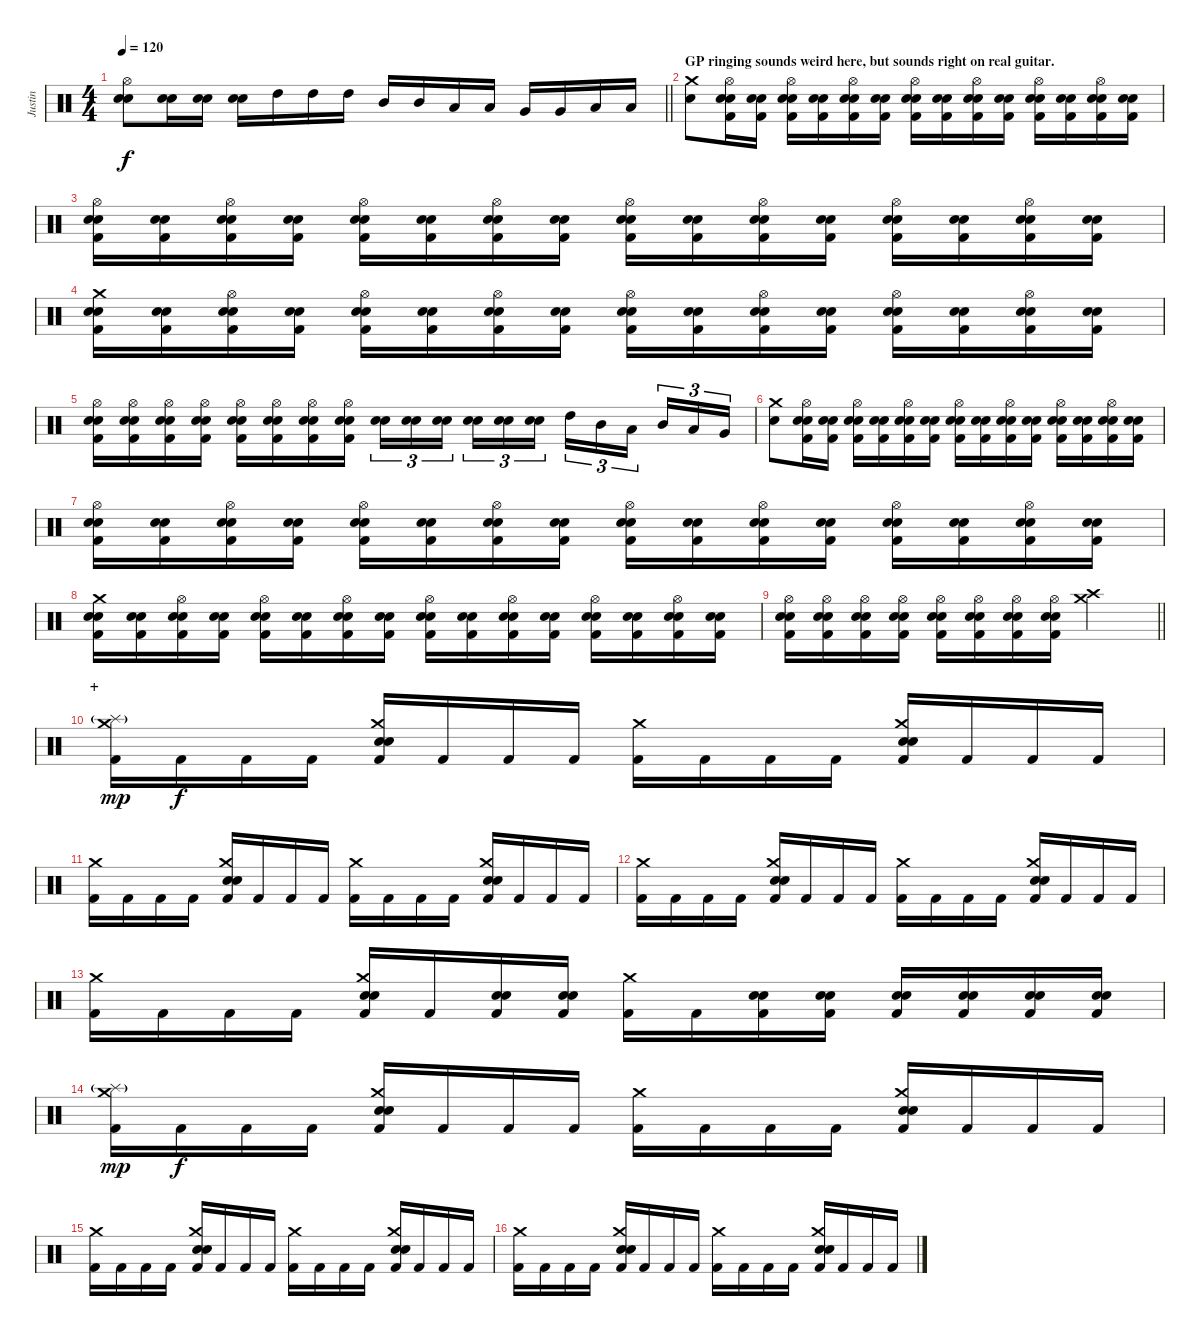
\track ("Justin" "Justin") {instrument percussion}
\staff {score}
\articulation defaults
\ts (4 4)
\tempo 120
\clef neutral
\barLineRight lightlight
\ks c
("Hi-Hat (open)" "Electric Snare (hit)" "Snare (hit) 2").8{dy f} ("Electric Snare (hit)" "Snare (hit) 2").16 ("Electric Snare (hit)" "Snare (hit) 2").16 ("Electric Snare (hit)" "Snare (hit) 2").16 "High Tom (hit)".16 "High Tom (hit)".16 "High Tom (hit)".16 "Mid Tom (hit)".16 "Mid Tom (hit)".16 "Low Tom (hit)".16 "Low Tom (hit)".16 "Very Low Tom (hit)".16 "Very Low Tom (hit)".16 "Low Floor Tom (hit)".16 "Low Floor Tom (hit)".16 |
\section ("" "GP ringing sounds weird here, but sounds right on real guitar.")
("Crash medium (hit)" "Electric Snare (hit)").8 ("Hi-Hat (open)" "Electric Snare (hit)" "Snare (hit) 2" "Kick (hit) 2").16 ("Electric Snare (hit)" "Snare (hit) 2" "Kick (hit) 2").16 ("Hi-Hat (open)" "Electric Snare (hit)" "Snare (hit) 2" "Kick (hit) 2").16 ("Electric Snare (hit)" "Snare (hit) 2" "Kick (hit) 2").16 ("Hi-Hat (open)" "Electric Snare (hit)" "Snare (hit) 2" "Kick (hit) 2").16 ("Electric Snare (hit)" "Snare (hit) 2" "Kick (hit) 2").16 ("Hi-Hat (open)" "Electric Snare (hit)" "Snare (hit) 2" "Kick (hit) 2").16 ("Electric Snare (hit)" "Snare (hit) 2" "Kick (hit) 2").16 ("Hi-Hat (open)" "Electric Snare (hit)" "Snare (hit) 2" "Kick (hit) 2").16 ("Electric Snare (hit)" "Snare (hit) 2" "Kick (hit) 2").16 ("Hi-Hat (open)" "Electric Snare (hit)" "Snare (hit) 2" "Kick (hit) 2").16 ("Electric Snare (hit)" "Snare (hit) 2" "Kick (hit) 2").16 ("Hi-Hat (open)" "Electric Snare (hit)" "Snare (hit) 2" "Kick (hit) 2").16 ("Electric Snare (hit)" "Snare (hit) 2" "Kick (hit) 2").16 |
("Hi-Hat (open)" "Electric Snare (hit)" "Snare (hit) 2" "Kick (hit) 2").16 ("Electric Snare (hit)" "Snare (hit) 2" "Kick (hit) 2").16 ("Hi-Hat (open)" "Electric Snare (hit)" "Snare (hit) 2" "Kick (hit) 2").16 ("Electric Snare (hit)" "Snare (hit) 2" "Kick (hit) 2").16 ("Hi-Hat (open)" "Electric Snare (hit)" "Snare (hit) 2" "Kick (hit) 2").16 ("Electric Snare (hit)" "Snare (hit) 2" "Kick (hit) 2").16 ("Hi-Hat (open)" "Electric Snare (hit)" "Snare (hit) 2" "Kick (hit) 2").16 ("Electric Snare (hit)" "Snare (hit) 2" "Kick (hit) 2").16 ("Hi-Hat (open)" "Electric Snare (hit)" "Snare (hit) 2" "Kick (hit) 2").16 ("Electric Snare (hit)" "Snare (hit) 2" "Kick (hit) 2").16 ("Hi-Hat (open)" "Electric Snare (hit)" "Snare (hit) 2" "Kick (hit) 2").16 ("Electric Snare (hit)" "Snare (hit) 2" "Kick (hit) 2").16 ("Hi-Hat (open)" "Electric Snare (hit)" "Snare (hit) 2" "Kick (hit) 2").16 ("Electric Snare (hit)" "Snare (hit) 2" "Kick (hit) 2").16 ("Hi-Hat (open)" "Electric Snare (hit)" "Snare (hit) 2" "Kick (hit) 2").16 ("Electric Snare (hit)" "Snare (hit) 2" "Kick (hit) 2").16 |
("Crash medium (hit)" "Electric Snare (hit)" "Snare (hit) 2" "Kick (hit) 2").16 ("Electric Snare (hit)" "Snare (hit) 2" "Kick (hit) 2").16 ("Hi-Hat (open)" "Electric Snare (hit)" "Snare (hit) 2" "Kick (hit) 2").16 ("Electric Snare (hit)" "Snare (hit) 2" "Kick (hit) 2").16 ("Hi-Hat (open)" "Electric Snare (hit)" "Snare (hit) 2" "Kick (hit) 2").16 ("Electric Snare (hit)" "Snare (hit) 2" "Kick (hit) 2").16 ("Hi-Hat (open)" "Electric Snare (hit)" "Snare (hit) 2" "Kick (hit) 2").16 ("Electric Snare (hit)" "Snare (hit) 2" "Kick (hit) 2").16 ("Hi-Hat (open)" "Electric Snare (hit)" "Snare (hit) 2" "Kick (hit) 2").16 ("Electric Snare (hit)" "Snare (hit) 2" "Kick (hit) 2").16 ("Hi-Hat (open)" "Electric Snare (hit)" "Snare (hit) 2" "Kick (hit) 2").16 ("Electric Snare (hit)" "Snare (hit) 2" "Kick (hit) 2").16 ("Hi-Hat (open)" "Electric Snare (hit)" "Snare (hit) 2" "Kick (hit) 2").16 ("Electric Snare (hit)" "Snare (hit) 2" "Kick (hit) 2").16 ("Hi-Hat (open)" "Electric Snare (hit)" "Snare (hit) 2" "Kick (hit) 2").16 ("Electric Snare (hit)" "Snare (hit) 2" "Kick (hit) 2").16 |
("Hi-Hat (open)" "Electric Snare (hit)" "Snare (hit) 2" "Kick (hit) 2").16 ("Hi-Hat (open)" "Electric Snare (hit)" "Snare (hit) 2" "Kick (hit) 2").16 ("Hi-Hat (open)" "Electric Snare (hit)" "Snare (hit) 2" "Kick (hit) 2").16 ("Hi-Hat (open)" "Electric Snare (hit)" "Snare (hit) 2" "Kick (hit) 2").16 ("Hi-Hat (open)" "Electric Snare (hit)" "Snare (hit) 2" "Kick (hit) 2").16 ("Hi-Hat (open)" "Electric Snare (hit)" "Snare (hit) 2" "Kick (hit) 2").16 ("Hi-Hat (open)" "Electric Snare (hit)" "Snare (hit) 2" "Kick (hit) 2").16 ("Hi-Hat (open)" "Electric Snare (hit)" "Snare (hit) 2" "Kick (hit) 2").16 ("Electric Snare (hit)" "Snare (hit) 2").16{tu (3 2)} ("Electric Snare (hit)" "Snare (hit) 2").16{tu (3 2)} ("Electric Snare (hit)" "Snare (hit) 2").16{tu (3 2) beam splitsecondary} ("Electric Snare (hit)" "Snare (hit) 2").16{tu (3 2)} ("Electric Snare (hit)" "Snare (hit) 2").16{tu (3 2)} ("Electric Snare (hit)" "Snare (hit) 2").16{tu (3 2)} "High Tom (hit)".16{tu (3 2)} "Mid Tom (hit)".16{tu (3 2)} "Low Tom (hit)".16{tu (3 2) beam splitsecondary} "Mid Tom (hit)".16{tu (3 2)} "Low Tom (hit)".16{tu (3 2)} "Very Low Tom (hit)".16{tu (3 2)} |
("Crash medium (hit)" "Electric Snare (hit)").8 ("Hi-Hat (open)" "Electric Snare (hit)" "Snare (hit) 2" "Kick (hit) 2").16 ("Electric Snare (hit)" "Snare (hit) 2" "Kick (hit) 2").16 ("Hi-Hat (open)" "Electric Snare (hit)" "Snare (hit) 2" "Kick (hit) 2").16 ("Electric Snare (hit)" "Snare (hit) 2" "Kick (hit) 2").16 ("Hi-Hat (open)" "Electric Snare (hit)" "Snare (hit) 2" "Kick (hit) 2").16 ("Electric Snare (hit)" "Snare (hit) 2" "Kick (hit) 2").16 ("Hi-Hat (open)" "Electric Snare (hit)" "Snare (hit) 2" "Kick (hit) 2").16 ("Electric Snare (hit)" "Snare (hit) 2" "Kick (hit) 2").16 ("Hi-Hat (open)" "Electric Snare (hit)" "Snare (hit) 2" "Kick (hit) 2").16 ("Electric Snare (hit)" "Snare (hit) 2" "Kick (hit) 2").16 ("Hi-Hat (open)" "Electric Snare (hit)" "Snare (hit) 2" "Kick (hit) 2").16 ("Electric Snare (hit)" "Snare (hit) 2" "Kick (hit) 2").16 ("Hi-Hat (open)" "Electric Snare (hit)" "Snare (hit) 2" "Kick (hit) 2").16 ("Electric Snare (hit)" "Snare (hit) 2" "Kick (hit) 2").16 |
("Hi-Hat (open)" "Electric Snare (hit)" "Snare (hit) 2" "Kick (hit) 2").16 ("Electric Snare (hit)" "Snare (hit) 2" "Kick (hit) 2").16 ("Hi-Hat (open)" "Electric Snare (hit)" "Snare (hit) 2" "Kick (hit) 2").16 ("Electric Snare (hit)" "Snare (hit) 2" "Kick (hit) 2").16 ("Hi-Hat (open)" "Electric Snare (hit)" "Snare (hit) 2" "Kick (hit) 2").16 ("Electric Snare (hit)" "Snare (hit) 2" "Kick (hit) 2").16 ("Hi-Hat (open)" "Electric Snare (hit)" "Snare (hit) 2" "Kick (hit) 2").16 ("Electric Snare (hit)" "Snare (hit) 2" "Kick (hit) 2").16 ("Hi-Hat (open)" "Electric Snare (hit)" "Snare (hit) 2" "Kick (hit) 2").16 ("Electric Snare (hit)" "Snare (hit) 2" "Kick (hit) 2").16 ("Hi-Hat (open)" "Electric Snare (hit)" "Snare (hit) 2" "Kick (hit) 2").16 ("Electric Snare (hit)" "Snare (hit) 2" "Kick (hit) 2").16 ("Hi-Hat (open)" "Electric Snare (hit)" "Snare (hit) 2" "Kick (hit) 2").16 ("Electric Snare (hit)" "Snare (hit) 2" "Kick (hit) 2").16 ("Hi-Hat (open)" "Electric Snare (hit)" "Snare (hit) 2" "Kick (hit) 2").16 ("Electric Snare (hit)" "Snare (hit) 2" "Kick (hit) 2").16 |
("Crash medium (hit)" "Electric Snare (hit)" "Snare (hit) 2" "Kick (hit) 2").16 ("Electric Snare (hit)" "Snare (hit) 2" "Kick (hit) 2").16 ("Hi-Hat (open)" "Electric Snare (hit)" "Snare (hit) 2" "Kick (hit) 2").16 ("Electric Snare (hit)" "Snare (hit) 2" "Kick (hit) 2").16 ("Hi-Hat (open)" "Electric Snare (hit)" "Snare (hit) 2" "Kick (hit) 2").16 ("Electric Snare (hit)" "Snare (hit) 2" "Kick (hit) 2").16 ("Hi-Hat (open)" "Electric Snare (hit)" "Snare (hit) 2" "Kick (hit) 2").16 ("Electric Snare (hit)" "Snare (hit) 2" "Kick (hit) 2").16 ("Hi-Hat (open)" "Electric Snare (hit)" "Snare (hit) 2" "Kick (hit) 2").16 ("Electric Snare (hit)" "Snare (hit) 2" "Kick (hit) 2").16 ("Hi-Hat (open)" "Electric Snare (hit)" "Snare (hit) 2" "Kick (hit) 2").16 ("Electric Snare (hit)" "Snare (hit) 2" "Kick (hit) 2").16 ("Hi-Hat (open)" "Electric Snare (hit)" "Snare (hit) 2" "Kick (hit) 2").16 ("Electric Snare (hit)" "Snare (hit) 2" "Kick (hit) 2").16 ("Hi-Hat (open)" "Electric Snare (hit)" "Snare (hit) 2" "Kick (hit) 2").16 ("Electric Snare (hit)" "Snare (hit) 2" "Kick (hit) 2").16 |
\barLineRight lightlight
("Hi-Hat (open)" "Electric Snare (hit)" "Snare (hit) 2" "Kick (hit) 2").16 ("Hi-Hat (open)" "Electric Snare (hit)" "Snare (hit) 2" "Kick (hit) 2").16 ("Hi-Hat (open)" "Electric Snare (hit)" "Snare (hit) 2" "Kick (hit) 2").16 ("Hi-Hat (open)" "Electric Snare (hit)" "Snare (hit) 2" "Kick (hit) 2").16 ("Hi-Hat (open)" "Electric Snare (hit)" "Snare (hit) 2" "Kick (hit) 2").16 ("Hi-Hat (open)" "Electric Snare (hit)" "Snare (hit) 2" "Kick (hit) 2").16 ("Hi-Hat (open)" "Electric Snare (hit)" "Snare (hit) 2" "Kick (hit) 2").16 ("Hi-Hat (open)" "Electric Snare (hit)" "Snare (hit) 2" "Kick (hit) 2").16 ("Crash medium (hit)" "Crash high (hit)").2 |
\section ("" "+")
("Crash medium (hit)" "Splash (hit)"{g} "Kick (hit) 2").16{dy mp} "Kick (hit) 2".16{dy f} "Kick (hit) 2".16 "Kick (hit) 2".16 ("Crash medium (hit)" "Electric Snare (hit)" "Snare (hit) 2" "Kick (hit) 2").16 "Kick (hit) 2".16 "Kick (hit) 2".16 "Kick (hit) 2".16 ("Crash medium (hit)" "Kick (hit) 2").16 "Kick (hit) 2".16 "Kick (hit) 2".16 "Kick (hit) 2".16 ("Crash medium (hit)" "Electric Snare (hit)" "Snare (hit) 2" "Kick (hit) 2").16 "Kick (hit) 2".16 "Kick (hit) 2".16 "Kick (hit) 2".16 |
("Crash medium (hit)" "Kick (hit) 2").16 "Kick (hit) 2".16 "Kick (hit) 2".16 "Kick (hit) 2".16 ("Crash medium (hit)" "Electric Snare (hit)" "Snare (hit) 2" "Kick (hit) 2").16 "Kick (hit) 2".16 "Kick (hit) 2".16 "Kick (hit) 2".16 ("Crash medium (hit)" "Kick (hit) 2").16 "Kick (hit) 2".16 "Kick (hit) 2".16 "Kick (hit) 2".16 ("Crash medium (hit)" "Electric Snare (hit)" "Snare (hit) 2" "Kick (hit) 2").16 "Kick (hit) 2".16 "Kick (hit) 2".16 "Kick (hit) 2".16 |
("Crash medium (hit)" "Kick (hit) 2").16 "Kick (hit) 2".16 "Kick (hit) 2".16 "Kick (hit) 2".16 ("Crash medium (hit)" "Electric Snare (hit)" "Snare (hit) 2" "Kick (hit) 2").16 "Kick (hit) 2".16 "Kick (hit) 2".16 "Kick (hit) 2".16 ("Crash medium (hit)" "Kick (hit) 2").16 "Kick (hit) 2".16 "Kick (hit) 2".16 "Kick (hit) 2".16 ("Crash medium (hit)" "Electric Snare (hit)" "Snare (hit) 2" "Kick (hit) 2").16 "Kick (hit) 2".16 "Kick (hit) 2".16 "Kick (hit) 2".16 |
("Crash medium (hit)" "Kick (hit) 2").16 "Kick (hit) 2".16 "Kick (hit) 2".16 "Kick (hit) 2".16 ("Crash medium (hit)" "Electric Snare (hit)" "Snare (hit) 2" "Kick (hit) 2").16 "Kick (hit) 2".16 ("Electric Snare (hit)" "Snare (hit) 2" "Kick (hit) 2").16 ("Electric Snare (hit)" "Snare (hit) 2" "Kick (hit) 2").16 ("Crash medium (hit)" "Kick (hit) 2").16 "Kick (hit) 2".16 ("Electric Snare (hit)" "Snare (hit) 2" "Kick (hit) 2").16 ("Electric Snare (hit)" "Snare (hit) 2" "Kick (hit) 2").16 ("Electric Snare (hit)" "Snare (hit) 2" "Kick (hit) 2").16 ("Electric Snare (hit)" "Snare (hit) 2" "Kick (hit) 2").16 ("Electric Snare (hit)" "Snare (hit) 2" "Kick (hit) 2").16 ("Electric Snare (hit)" "Snare (hit) 2" "Kick (hit) 2").16 |
("Crash medium (hit)" "Splash (hit)"{g} "Kick (hit) 2").16{dy mp} "Kick (hit) 2".16{dy f} "Kick (hit) 2".16 "Kick (hit) 2".16 ("Crash medium (hit)" "Electric Snare (hit)" "Snare (hit) 2" "Kick (hit) 2").16 "Kick (hit) 2".16 "Kick (hit) 2".16 "Kick (hit) 2".16 ("Crash medium (hit)" "Kick (hit) 2").16 "Kick (hit) 2".16 "Kick (hit) 2".16 "Kick (hit) 2".16 ("Crash medium (hit)" "Electric Snare (hit)" "Snare (hit) 2" "Kick (hit) 2").16 "Kick (hit) 2".16 "Kick (hit) 2".16 "Kick (hit) 2".16 |
("Crash medium (hit)" "Kick (hit) 2").16 "Kick (hit) 2".16 "Kick (hit) 2".16 "Kick (hit) 2".16 ("Crash medium (hit)" "Electric Snare (hit)" "Snare (hit) 2" "Kick (hit) 2").16 "Kick (hit) 2".16 "Kick (hit) 2".16 "Kick (hit) 2".16 ("Crash medium (hit)" "Kick (hit) 2").16 "Kick (hit) 2".16 "Kick (hit) 2".16 "Kick (hit) 2".16 ("Crash medium (hit)" "Electric Snare (hit)" "Snare (hit) 2" "Kick (hit) 2").16 "Kick (hit) 2".16 "Kick (hit) 2".16 "Kick (hit) 2".16 |
("Crash medium (hit)" "Kick (hit) 2").16 "Kick (hit) 2".16 "Kick (hit) 2".16 "Kick (hit) 2".16 ("Crash medium (hit)" "Electric Snare (hit)" "Snare (hit) 2" "Kick (hit) 2").16 "Kick (hit) 2".16 "Kick (hit) 2".16 "Kick (hit) 2".16 ("Crash medium (hit)" "Kick (hit) 2").16 "Kick (hit) 2".16 "Kick (hit) 2".16 "Kick (hit) 2".16 ("Crash medium (hit)" "Electric Snare (hit)" "Snare (hit) 2" "Kick (hit) 2").16 "Kick (hit) 2".16 "Kick (hit) 2".16 "Kick (hit) 2".16
